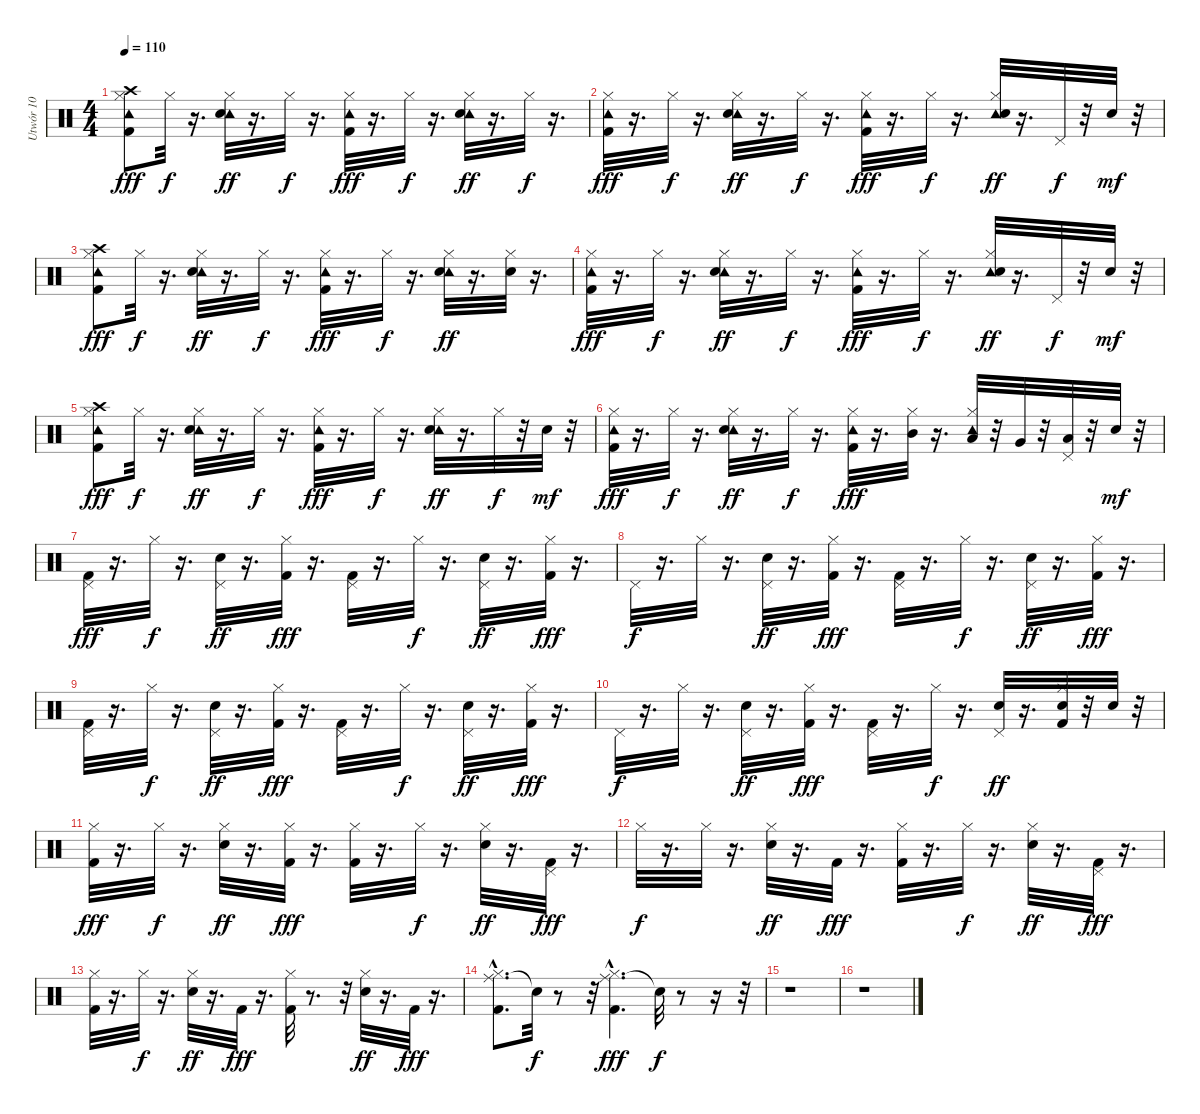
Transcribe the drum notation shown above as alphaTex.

\track ("Utwór 10" "Utwór 10") {instrument percussion}
\staff {score}
\articulation defaults
\ts (4 4)
\tempo 110
\clef neutral
\ks c
("Crash high (hit)" "Tambourine (hit)" "Kick (hit) 2" "Hi-Hat (closed)").8{dy fff} "Hi-Hat (closed)".32{dy f} r.16{d} ("Tambourine (hit)" "Snare (hit) 2" "Hi-Hat (closed)").32{dy ff} r.16{d} "Hi-Hat (closed)".32{dy f} r.16{d} ("Tambourine (hit)" "Kick (hit) 2" "Hi-Hat (closed)").32{dy fff} r.16{d} "Hi-Hat (closed)".32{dy f} r.16{d} ("Tambourine (hit)" "Snare (hit) 2" "Hi-Hat (closed)").32{dy ff} r.16{d} "Hi-Hat (closed)".32{dy f} r.16{d} |
("Tambourine (hit)" "Kick (hit) 2" "Hi-Hat (closed)").32{dy fff} r.16{d} "Hi-Hat (closed)".32{dy f} r.16{d} ("Tambourine (hit)" "Snare (hit) 2" "Hi-Hat (closed)").32{dy ff} r.16{d} "Hi-Hat (closed)".32{dy f} r.16{d} ("Tambourine (hit)" "Kick (hit) 2" "Hi-Hat (closed)").32{dy fff} r.16{d} "Hi-Hat (closed)".32{dy f} r.16{d} ("Tambourine (hit)" "Snare (hit) 2" "Hi-Hat (closed)").32{dy ff} r.16{d} "Pedal Hi-Hat (hit)".32{dy f} r.32 "Snare (hit) 2".32{dy mf} r.32 |
("Crash high (hit)" "Tambourine (hit)" "Kick (hit) 2" "Hi-Hat (closed)").8{dy fff} "Hi-Hat (closed)".32{dy f} r.16{d} ("Tambourine (hit)" "Snare (hit) 2" "Hi-Hat (closed)").32{dy ff} r.16{d} "Hi-Hat (closed)".32{dy f} r.16{d} ("Tambourine (hit)" "Kick (hit) 2" "Hi-Hat (closed)").32{dy fff} r.16{d} "Hi-Hat (closed)".32{dy f} r.16{d} ("Tambourine (hit)" "Snare (hit) 2" "Hi-Hat (closed)").32{dy ff} r.16{d} ("Snare (hit) 2" "Hi-Hat (closed)").32 r.16{d} |
("Tambourine (hit)" "Kick (hit) 2" "Hi-Hat (closed)").32{dy fff} r.16{d} "Hi-Hat (closed)".32{dy f} r.16{d} ("Tambourine (hit)" "Snare (hit) 2" "Hi-Hat (closed)").32{dy ff} r.16{d} "Hi-Hat (closed)".32{dy f} r.16{d} ("Tambourine (hit)" "Kick (hit) 2" "Hi-Hat (closed)").32{dy fff} r.16{d} "Hi-Hat (closed)".32{dy f} r.16{d} ("Tambourine (hit)" "Snare (hit) 2" "Hi-Hat (closed)").32{dy ff} r.16{d} "Pedal Hi-Hat (hit)".32{dy f} r.32 "Snare (hit) 2".32{dy mf} r.32 |
("Tambourine (hit)" "Kick (hit) 2" "Hi-Hat (closed)" "Crash high (hit)").8{dy fff} "Hi-Hat (closed)".32{dy f} r.16{d} ("Tambourine (hit)" "Snare (hit) 2" "Hi-Hat (closed)").32{dy ff} r.16{d} "Hi-Hat (closed)".32{dy f} r.16{d} ("Tambourine (hit)" "Kick (hit) 2" "Hi-Hat (closed)").32{dy fff} r.16{d} "Hi-Hat (closed)".32{dy f} r.16{d} ("Tambourine (hit)" "Snare (hit) 2" "Hi-Hat (closed)").32{dy ff} r.16{d} "Hi-Hat (closed)".32{dy f} r.32 "Snare (hit) 2".32{dy mf} r.32 |
("Tambourine (hit)" "Kick (hit) 2" "Hi-Hat (closed)").32{dy fff} r.16{d} "Hi-Hat (closed)".32{dy f} r.16{d} ("Tambourine (hit)" "Snare (hit) 2" "Hi-Hat (closed)").32{dy ff} r.16{d} "Hi-Hat (closed)".32{dy f} r.16{d} ("Tambourine (hit)" "Kick (hit) 2" "Hi-Hat (closed)").32{dy fff} r.16{d} ("Mid Tom (hit)" "Hi-Hat (closed)").32 r.16{d} ("Tambourine (hit)" "Low Tom (hit)" "Hi-Hat (closed)").32 r.32 "Very Low Tom (hit)".32 r.32 ("Low Floor Tom (hit)" "Pedal Hi-Hat (hit)").32 r.32 "Snare (hit) 2".32{dy mf} r.32 |
("Kick (hit) 2" "Pedal Hi-Hat (hit)").32{dy fff} r.16{d} "Hi-Hat (closed)".32{dy f} r.16{d} ("Snare (hit) 2" "Pedal Hi-Hat (hit)").32{dy ff} r.16{d} ("Kick (hit) 2" "Hi-Hat (closed)").32{dy fff} r.16{d} ("Kick (hit) 2" "Pedal Hi-Hat (hit)").32 r.16{d} "Hi-Hat (closed)".32{dy f} r.16{d} ("Snare (hit) 2" "Pedal Hi-Hat (hit)").32{dy ff} r.16{d} ("Kick (hit) 2" "Hi-Hat (closed)").32{dy fff} r.16{d} |
"Pedal Hi-Hat (hit)".32{dy f} r.16{d} "Hi-Hat (closed)".32 r.16{d} ("Snare (hit) 2" "Pedal Hi-Hat (hit)").32{dy ff} r.16{d} ("Kick (hit) 2" "Hi-Hat (closed)").32{dy fff} r.16{d} ("Kick (hit) 2" "Pedal Hi-Hat (hit)").32 r.16{d} "Hi-Hat (closed)".32{dy f} r.16{d} ("Snare (hit) 2" "Pedal Hi-Hat (hit)").32{dy ff} r.16{d} ("Kick (hit) 2" "Hi-Hat (closed)").32{dy fff} r.16{d} |
("Kick (hit) 2" "Pedal Hi-Hat (hit)").32 r.16{d} "Hi-Hat (closed)".32{dy f} r.16{d} ("Snare (hit) 2" "Pedal Hi-Hat (hit)").32{dy ff} r.16{d} ("Kick (hit) 2" "Hi-Hat (closed)").32{dy fff} r.16{d} ("Kick (hit) 2" "Pedal Hi-Hat (hit)").32 r.16{d} "Hi-Hat (closed)".32{dy f} r.16{d} ("Snare (hit) 2" "Pedal Hi-Hat (hit)").32{dy ff} r.16{d} ("Kick (hit) 2" "Hi-Hat (closed)").32{dy fff} r.16{d} |
"Pedal Hi-Hat (hit)".32{dy f} r.16{d} "Hi-Hat (closed)".32 r.16{d} ("Snare (hit) 2" "Pedal Hi-Hat (hit)").32{dy ff} r.16{d} ("Kick (hit) 2" "Hi-Hat (closed)").32{dy fff} r.16{d} ("Kick (hit) 2" "Pedal Hi-Hat (hit)").32 r.16{d} "Hi-Hat (closed)".32{dy f} r.16{d} ("Snare (hit) 2" "Pedal Hi-Hat (hit)").32{dy ff} r.16{d} ("Kick (hit) 2" "Snare (hit) 2" "Hi-Hat (closed)").32 r.32 "Snare (hit) 2".32 r.32 |
("Kick (hit) 2" "Hi-Hat (closed)").32{dy fff} r.16{d} "Hi-Hat (closed)".32{dy f} r.16{d} ("Snare (hit) 2" "Hi-Hat (closed)").32{dy ff} r.16{d} ("Kick (hit) 2" "Hi-Hat (closed)").32{dy fff} r.16{d} ("Kick (hit) 2" "Hi-Hat (closed)").32 r.16{d} "Hi-Hat (closed)".32{dy f} r.16{d} ("Snare (hit) 2" "Hi-Hat (closed)").32{dy ff} r.16{d} ("Kick (hit) 2" "Pedal Hi-Hat (hit)").32{dy fff} r.16{d} |
"Hi-Hat (closed)".32{dy f} r.16{d} "Hi-Hat (closed)".32 r.16{d} ("Snare (hit) 2" "Hi-Hat (closed)").32{dy ff} r.16{d} "Kick (hit) 2".32{dy fff} r.16{d} ("Kick (hit) 2" "Hi-Hat (closed)").32 r.16{d} "Hi-Hat (closed)".32{dy f} r.16{d} ("Snare (hit) 2" "Hi-Hat (closed)").32{dy ff} r.16{d} ("Kick (hit) 2" "Pedal Hi-Hat (hit)").32{dy fff} r.16{d} |
("Kick (hit) 2" "Hi-Hat (closed)").32 r.16{d} "Hi-Hat (closed)".32{dy f} r.16{d} ("Snare (hit) 2" "Hi-Hat (closed)").32{dy ff} r.16{d} "Kick (hit) 2".32{dy fff} r.16{d} ("Kick (hit) 2" "Hi-Hat (closed)").32 r.8{d} r.32 ("Snare (hit) 2" "Hi-Hat (closed)").32{dy ff} r.16{d} "Kick (hit) 2".32{dy fff} r.16{d} |
("Ride (middle)"{hac} "Kick (hit) 2" "Hi-Hat (closed)").8{d} "Snare (hit)"{t}.32{dy f} r.8 r.32 ("Ride (middle)"{hac} "Kick (hit) 2" "Hi-Hat (closed)").4{d dy fff} "Snare (hit)"{t}.32{dy f} r.8 r.16 r.32 |
r.1 |
r.1
